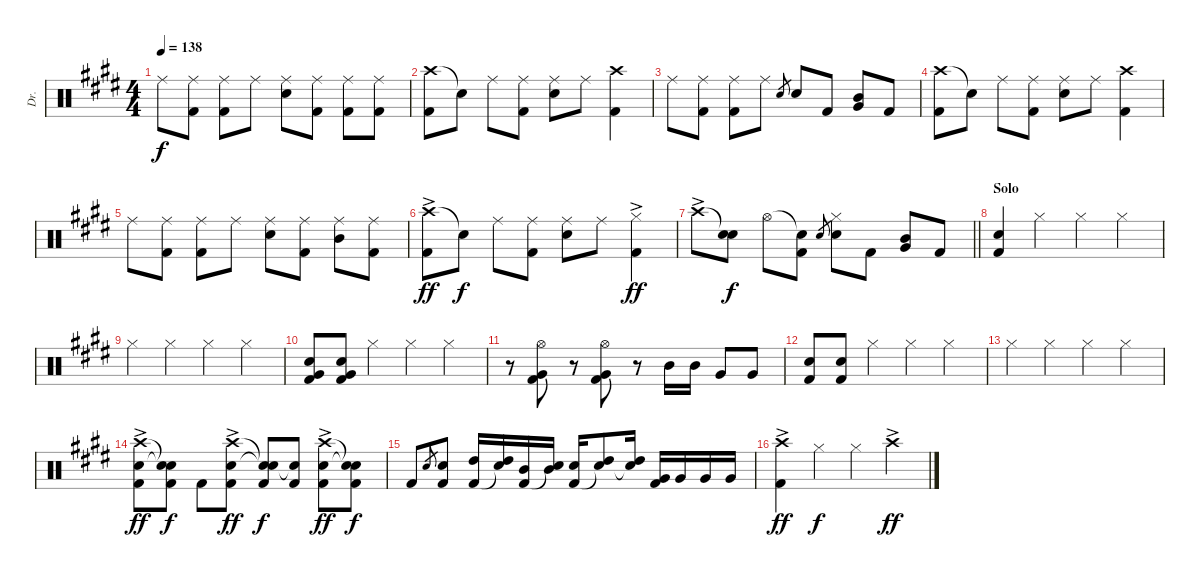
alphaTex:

\track ("Dr." "Dr.") {instrument percussion}
\staff {score}
\articulation defaults
\ts (4 4)
\tempo 138
\clef neutral
\ks e "Ride (middle)".8{dy f}
("Ride (middle)" "Kick (hit) 2").8 ("Ride (middle)" "Kick (hit) 2").8 "Ride (middle)".8 ("Ride (middle)" "Snare (hit) 2").8 ("Ride (middle)" "Kick (hit) 2").8 ("Ride (middle)" "Kick (hit) 2").8 ("Ride (middle)" "Kick (hit) 2").8 |
("Crash high (hit)" "Kick (hit) 2").8 "Snare (hit)"{t}.8 "Ride (middle)".8 ("Ride (middle)" "Kick (hit) 2").8 ("Ride (middle)" "Snare (hit) 2").8 "Ride (middle)".8 ("Crash high (hit)" "Kick (hit) 2").4 |
"Ride (middle)".8 ("Ride (middle)" "Kick (hit) 2").8 ("Ride (middle)" "Kick (hit) 2").8 "Ride (middle)".8 "Snare (hit) 2".8{gr} "Snare (hit) 2".8 "Kick (hit) 2".8 ("Mid Tom (hit)" "Very Low Tom (hit)").8 "Kick (hit) 2".8 |
("Crash high (hit)" "Kick (hit) 2").8 "Snare (hit)"{t}.8 "Ride (middle)".8 ("Ride (middle)" "Kick (hit) 2").8 ("Ride (middle)" "Snare (hit) 2").8 "Ride (middle)".8 ("Crash high (hit)" "Kick (hit) 2").4 |
"Ride (middle)".8 ("Ride (middle)" "Kick (hit) 2").8 ("Ride (middle)" "Kick (hit) 2").8 "Ride (middle)".8 ("Ride (middle)" "Snare (hit) 2").8 ("Ride (middle)" "Kick (hit) 2").8 ("Ride (middle)" "Mid Tom (hit)").8 ("Ride (middle)" "Kick (hit) 2").8 |
("Crash high (hit)"{ac} "Kick (hit) 2").8{dy ff} "Snare (hit)"{t}.8{dy f} "Ride (middle)".8 ("Ride (middle)" "Kick (hit) 2").8 ("Ride (middle)" "Snare (hit) 2").8 "Ride (middle)".8 ("Hi-Hat (closed)"{ac} "Kick (hit) 2"{ac}).4{dy ff} |
\barLineRight lightlight "Crash high (hit)"{ac}.8
("Snare (hit)"{t} "Snare (hit) 2").8{dy f} "Hi-Hat (open)".8 ("Snare (hit)"{t} "Kick (hit) 2").8 "Snare (hit) 2".8{gr} ("Hi-Hat (closed)" "Snare (hit) 2").8 "Kick (hit) 2".8 ("Mid Tom (hit)" "Very Low Tom (hit)").8 "Kick (hit) 2".8 |
\section ("" "Solo")
("Snare (hit) 2" "Kick (hit) 2").4 "Hi-Hat (closed)".4 "Hi-Hat (closed)".4 "Hi-Hat (closed)".4 |
"Hi-Hat (closed)".4 "Hi-Hat (closed)".4 "Hi-Hat (closed)".4 "Hi-Hat (closed)".4 |
("Snare (hit) 2" "Very Low Tom (hit)" "Kick (hit) 2").8 ("Snare (hit) 2" "Very Low Tom (hit)" "Kick (hit) 2").8 "Hi-Hat (closed)".4 "Hi-Hat (closed)".4 "Hi-Hat (closed)".4 |
r.8 ("Hi-Hat (open)" "Very Low Tom (hit)" "Kick (hit) 2").8 r.8 ("Hi-Hat (open)" "Very Low Tom (hit)" "Kick (hit) 2").8 r.8 "Mid Tom (hit)".16 "Mid Tom (hit)".16 "Very Low Tom (hit)".8 "Very Low Tom (hit)".8 |
("Snare (hit) 2" "Kick (hit) 2").8 ("Snare (hit) 2" "Kick (hit) 2").8 "Hi-Hat (closed)".4 "Hi-Hat (closed)".4 "Hi-Hat (closed)".4 |
"Hi-Hat (closed)".4 "Hi-Hat (closed)".4 "Hi-Hat (closed)".4 "Hi-Hat (closed)".4 |
("Crash high (hit)"{ac} "Snare (hit) 2" "Kick (hit) 2").8{dy ff} ("Snare (hit)"{t} "Snare (hit)"{t} "Kick (hit) 2").8{dy f} "Kick (hit) 2".8 ("Crash high (hit)"{ac} "Snare (hit) 2" "Kick (hit) 2").8{dy ff} ("Snare (hit)"{t} "Snare (hit)"{t} "Kick (hit) 2").8{dy f} ("Snare (hit)"{t} "Kick (hit) 2").8 ("Crash high (hit)"{ac} "Snare (hit) 2" "Kick (hit) 2").8{dy ff} ("Snare (hit)"{t} "Snare (hit)"{t} "Kick (hit) 2").8{dy f} |
"Kick (hit) 2".8 "Snare (hit) 2".8{gr} ("Snare (hit) 2" "Kick (hit) 2").8 ("High Tom (hit)" "Kick (hit) 2").16 ("High Tom (hit)" "Snare (hit)"{t}).16 ("Mid Tom (hit)" "Kick (hit) 2").16 ("Mid Tom (hit)" "Snare (hit)"{t}).16 ("Snare (hit) 2" "Kick (hit) 2").16 ("High Tom (hit)" "Snare (hit)"{t}).8 ("High Tom (hit)" "Snare (hit)"{t}).16 ("Very Low Tom (hit)" "Kick (hit) 2").16 "Very Low Tom (hit)".16 "Very Low Tom (hit)".16 "Very Low Tom (hit)".16 |
("Crash high (hit)"{ac} "Kick (hit) 2").4{dy ff} "Hi-Hat (closed)".4{dy f} "Hi-Hat (closed)".4 "Crash high (hit)"{ac}.4{dy ff}
